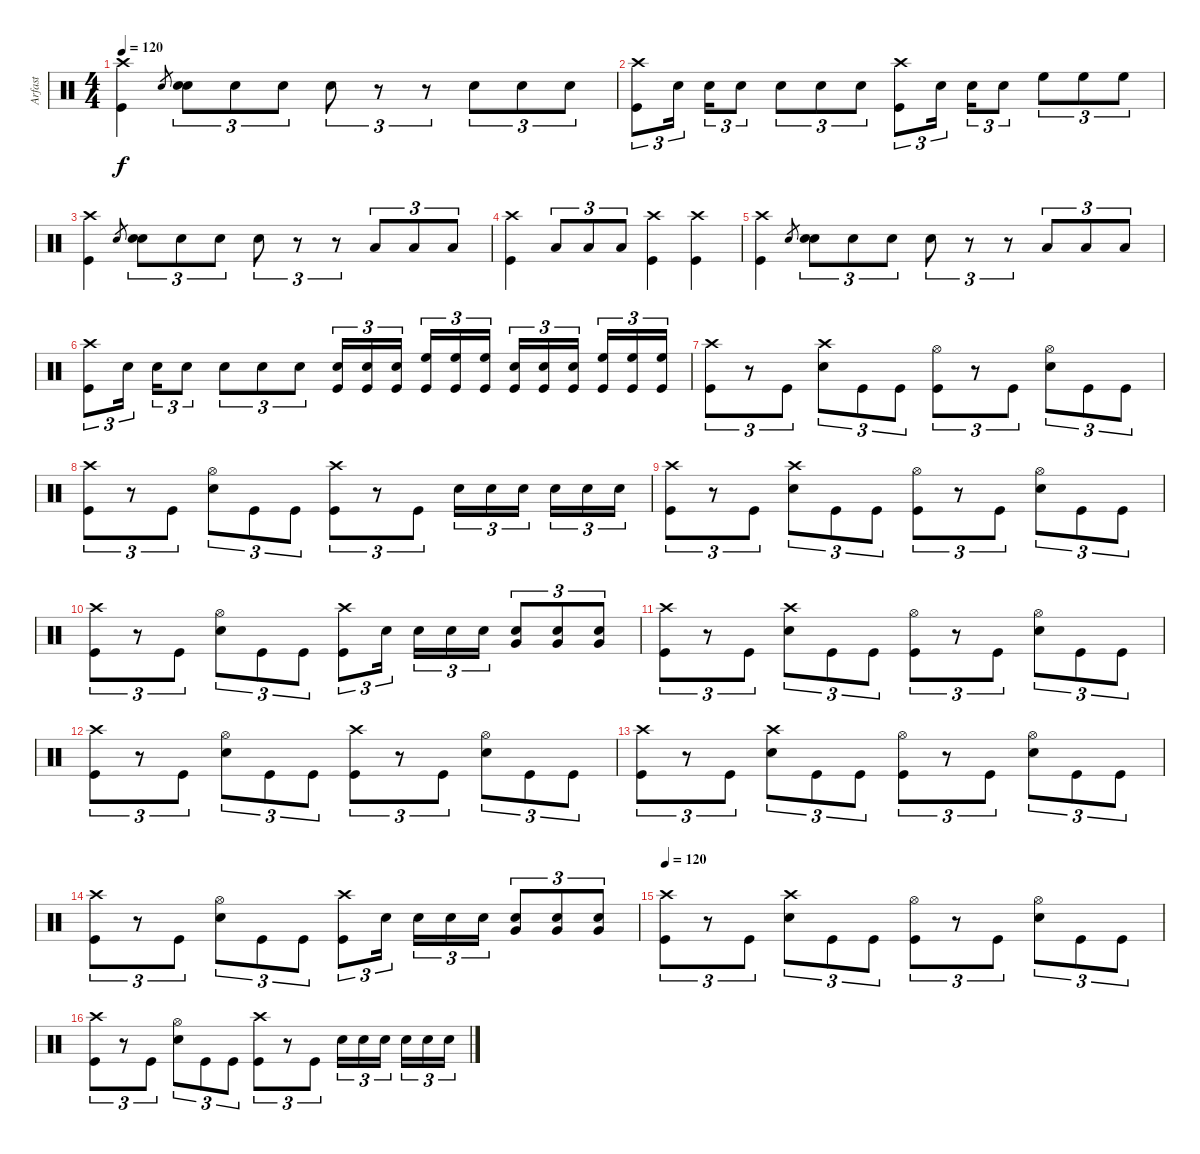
\track ("Arfast" "Arfast") {instrument percussion}
\staff {score}
\articulation defaults
\ts (4 4)
\tempo 120
\clef neutral
\ks c
("Crash high (hit)" "Kick (hit)").4{dy f} "Snare (hit) 2".8{gr} ("Snare (hit) 2" "Snare (hit) 2").8{tu (3 2)} "Snare (hit) 2".8{tu (3 2)} "Snare (hit) 2".8{tu (3 2)} "Snare (hit) 2".8{tu (3 2)} r.8{tu (3 2)} r.8{tu (3 2)} "Snare (hit) 2".8{tu (3 2)} "Snare (hit) 2".8{tu (3 2)} "Snare (hit) 2".8{tu (3 2)} |
("Crash high (hit)" "Kick (hit)").8{tu (3 2)} "Snare (hit) 2".16{tu (3 2) beam splitsecondary} "Snare (hit) 2".16{tu (3 2)} "Snare (hit) 2".8{tu (3 2)} "Snare (hit) 2".8{tu (3 2)} "Snare (hit) 2".8{tu (3 2)} "Snare (hit) 2".8{tu (3 2)} ("Crash high (hit)" "Kick (hit)").8{tu (3 2)} "Snare (hit) 2".16{tu (3 2) beam splitsecondary} "Snare (hit) 2".16{tu (3 2)} "Snare (hit) 2".8{tu (3 2)} "High Floor Tom (hit)".8{tu (3 2)} "High Floor Tom (hit)".8{tu (3 2)} "High Floor Tom (hit)".8{tu (3 2)} |
("Crash high (hit)" "Kick (hit)").4 "Snare (hit) 2".8{gr} ("Snare (hit) 2" "Snare (hit) 2").8{tu (3 2)} "Snare (hit) 2".8{tu (3 2)} "Snare (hit) 2".8{tu (3 2)} "Snare (hit) 2".8{tu (3 2)} r.8{tu (3 2)} r.8{tu (3 2)} "Low Tom (hit)".8{tu (3 2)} "Low Tom (hit)".8{tu (3 2)} "Low Tom (hit)".8{tu (3 2)} |
("Crash high (hit)" "Kick (hit)").4 "Low Tom (hit)".8{tu (3 2)} "Low Tom (hit)".8{tu (3 2)} "Low Tom (hit)".8{tu (3 2)} ("Crash high (hit)" "Kick (hit)").4 ("Crash high (hit)" "Kick (hit)").4 |
("Crash high (hit)" "Kick (hit)").4 "Snare (hit) 2".8{gr} ("Snare (hit) 2" "Snare (hit) 2").8{tu (3 2)} "Snare (hit) 2".8{tu (3 2)} "Snare (hit) 2".8{tu (3 2)} "Snare (hit) 2".8{tu (3 2)} r.8{tu (3 2)} r.8{tu (3 2)} "Low Tom (hit)".8{tu (3 2)} "Low Tom (hit)".8{tu (3 2)} "Low Tom (hit)".8{tu (3 2)} |
("Crash high (hit)" "Kick (hit)").8{tu (3 2)} "Snare (hit) 2".16{tu (3 2) beam splitsecondary} "Snare (hit) 2".16{tu (3 2)} "Snare (hit) 2".8{tu (3 2)} "Snare (hit) 2".8{tu (3 2)} "Snare (hit) 2".8{tu (3 2)} "Snare (hit) 2".8{tu (3 2)} ("Kick (hit)" "Snare (hit) 2").16{tu (3 2)} ("Kick (hit)" "Snare (hit) 2").16{tu (3 2)} ("Kick (hit)" "Snare (hit) 2").16{tu (3 2) beam splitsecondary} ("Kick (hit)" "High Floor Tom (hit)").16{tu (3 2)} ("Kick (hit)" "High Floor Tom (hit)").16{tu (3 2)} ("Kick (hit)" "High Floor Tom (hit)").16{tu (3 2)} ("Kick (hit)" "Snare (hit) 2").16{tu (3 2)} ("Kick (hit)" "Snare (hit) 2").16{tu (3 2)} ("Kick (hit)" "Snare (hit) 2").16{tu (3 2) beam splitsecondary} ("Kick (hit)" "High Floor Tom (hit)").16{tu (3 2)} ("Kick (hit)" "High Floor Tom (hit)").16{tu (3 2)} ("Kick (hit)" "High Floor Tom (hit)").16{tu (3 2)} |
("Crash high (hit)" "Kick (hit)").8{tu (3 2)} r.8{tu (3 2)} "Kick (hit)".8{tu (3 2)} ("Crash high (hit)" "Snare (hit) 2").8{tu (3 2)} "Kick (hit)".8{tu (3 2)} "Kick (hit)".8{tu (3 2)} ("Hi-Hat (open)" "Kick (hit)").8{tu (3 2)} r.8{tu (3 2)} "Kick (hit)".8{tu (3 2)} ("Hi-Hat (open)" "Snare (hit) 2").8{tu (3 2)} "Kick (hit)".8{tu (3 2)} "Kick (hit)".8{tu (3 2)} |
("Crash high (hit)" "Kick (hit)").8{tu (3 2)} r.8{tu (3 2)} "Kick (hit)".8{tu (3 2)} ("Hi-Hat (open)" "Snare (hit) 2").8{tu (3 2)} "Kick (hit)".8{tu (3 2)} "Kick (hit)".8{tu (3 2)} ("Crash high (hit)" "Kick (hit)").8{tu (3 2)} r.8{tu (3 2)} "Kick (hit)".8{tu (3 2)} "Snare (hit) 2".16{tu (3 2)} "Snare (hit) 2".16{tu (3 2)} "Snare (hit) 2".16{tu (3 2) beam splitsecondary} "Snare (hit) 2".16{tu (3 2)} "Snare (hit) 2".16{tu (3 2)} "Snare (hit) 2".16{tu (3 2)} |
("Crash high (hit)" "Kick (hit)").8{tu (3 2)} r.8{tu (3 2)} "Kick (hit)".8{tu (3 2)} ("Crash high (hit)" "Snare (hit) 2").8{tu (3 2)} "Kick (hit)".8{tu (3 2)} "Kick (hit)".8{tu (3 2)} ("Hi-Hat (open)" "Kick (hit)").8{tu (3 2)} r.8{tu (3 2)} "Kick (hit)".8{tu (3 2)} ("Hi-Hat (open)" "Snare (hit) 2").8{tu (3 2)} "Kick (hit)".8{tu (3 2)} "Kick (hit)".8{tu (3 2)} |
("Crash high (hit)" "Kick (hit)").8{tu (3 2)} r.8{tu (3 2)} "Kick (hit)".8{tu (3 2)} ("Hi-Hat (open)" "Snare (hit) 2").8{tu (3 2)} "Kick (hit)".8{tu (3 2)} "Kick (hit)".8{tu (3 2)} ("Crash high (hit)" "Kick (hit)").8{tu (3 2)} "Snare (hit) 2".16{tu (3 2) beam splitsecondary} "Snare (hit) 2".16{tu (3 2)} "Snare (hit) 2".16{tu (3 2)} "Snare (hit) 2".16{tu (3 2)} ("Snare (hit) 2" "Very Low Tom (hit)").8{tu (3 2)} ("Snare (hit) 2" "Very Low Tom (hit)").8{tu (3 2)} ("Snare (hit) 2" "Very Low Tom (hit)").8{tu (3 2)} |
("Crash high (hit)" "Kick (hit)").8{tu (3 2)} r.8{tu (3 2)} "Kick (hit)".8{tu (3 2)} ("Crash high (hit)" "Snare (hit) 2").8{tu (3 2)} "Kick (hit)".8{tu (3 2)} "Kick (hit)".8{tu (3 2)} ("Hi-Hat (open)" "Kick (hit)").8{tu (3 2)} r.8{tu (3 2)} "Kick (hit)".8{tu (3 2)} ("Hi-Hat (open)" "Snare (hit) 2").8{tu (3 2)} "Kick (hit)".8{tu (3 2)} "Kick (hit)".8{tu (3 2)} |
("Crash high (hit)" "Kick (hit)").8{tu (3 2)} r.8{tu (3 2)} "Kick (hit)".8{tu (3 2)} ("Hi-Hat (open)" "Snare (hit) 2").8{tu (3 2)} "Kick (hit)".8{tu (3 2)} "Kick (hit)".8{tu (3 2)} ("Crash high (hit)" "Kick (hit)").8{tu (3 2)} r.8{tu (3 2)} "Kick (hit)".8{tu (3 2)} ("Hi-Hat (open)" "Snare (hit) 2").8{tu (3 2)} "Kick (hit)".8{tu (3 2)} "Kick (hit)".8{tu (3 2)} |
("Crash high (hit)" "Kick (hit)").8{tu (3 2)} r.8{tu (3 2)} "Kick (hit)".8{tu (3 2)} ("Crash high (hit)" "Snare (hit) 2").8{tu (3 2)} "Kick (hit)".8{tu (3 2)} "Kick (hit)".8{tu (3 2)} ("Hi-Hat (open)" "Kick (hit)").8{tu (3 2)} r.8{tu (3 2)} "Kick (hit)".8{tu (3 2)} ("Hi-Hat (open)" "Snare (hit) 2").8{tu (3 2)} "Kick (hit)".8{tu (3 2)} "Kick (hit)".8{tu (3 2)} |
("Crash high (hit)" "Kick (hit)").8{tu (3 2)} r.8{tu (3 2)} "Kick (hit)".8{tu (3 2)} ("Hi-Hat (open)" "Snare (hit) 2").8{tu (3 2)} "Kick (hit)".8{tu (3 2)} "Kick (hit)".8{tu (3 2)} ("Crash high (hit)" "Kick (hit)").8{tu (3 2)} "Snare (hit) 2".16{tu (3 2) beam splitsecondary} "Snare (hit) 2".16{tu (3 2)} "Snare (hit) 2".16{tu (3 2)} "Snare (hit) 2".16{tu (3 2)} ("Snare (hit) 2" "Very Low Tom (hit)").8{tu (3 2)} ("Snare (hit) 2" "Very Low Tom (hit)").8{tu (3 2)} ("Snare (hit) 2" "Very Low Tom (hit)").8{tu (3 2)} |
\tempo 120
("Crash high (hit)" "Kick (hit)").8{tu (3 2)} r.8{tu (3 2)} "Kick (hit)".8{tu (3 2)} ("Crash high (hit)" "Snare (hit) 2").8{tu (3 2)} "Kick (hit)".8{tu (3 2)} "Kick (hit)".8{tu (3 2)} ("Hi-Hat (open)" "Kick (hit)").8{tu (3 2)} r.8{tu (3 2)} "Kick (hit)".8{tu (3 2)} ("Hi-Hat (open)" "Snare (hit) 2").8{tu (3 2)} "Kick (hit)".8{tu (3 2)} "Kick (hit)".8{tu (3 2)} |
("Crash high (hit)" "Kick (hit)").8{tu (3 2)} r.8{tu (3 2)} "Kick (hit)".8{tu (3 2)} ("Hi-Hat (open)" "Snare (hit) 2").8{tu (3 2)} "Kick (hit)".8{tu (3 2)} "Kick (hit)".8{tu (3 2)} ("Crash high (hit)" "Kick (hit)").8{tu (3 2)} r.8{tu (3 2)} "Kick (hit)".8{tu (3 2)} "Snare (hit) 2".16{tu (3 2)} "Snare (hit) 2".16{tu (3 2)} "Snare (hit) 2".16{tu (3 2) beam splitsecondary} "Snare (hit) 2".16{tu (3 2)} "Snare (hit) 2".16{tu (3 2)} "Snare (hit) 2".16{tu (3 2)}
